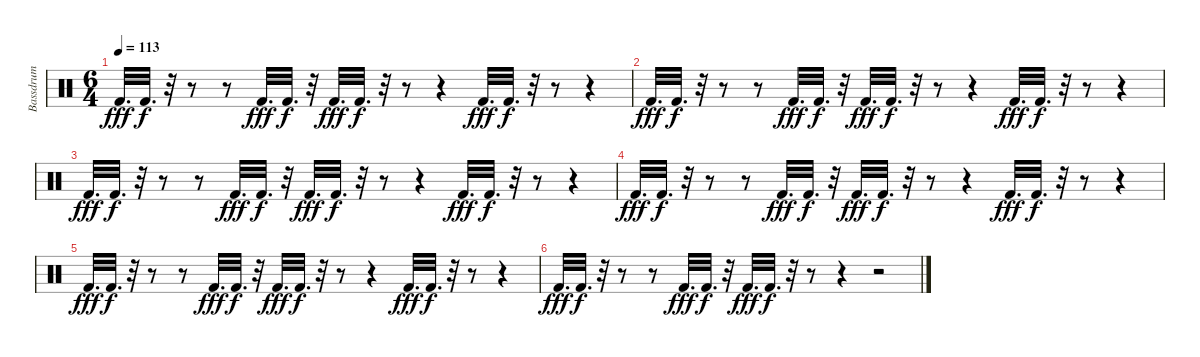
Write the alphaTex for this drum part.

\track ("Bassdrum" "Bassdrum") {instrument percussion}
\staff {score}
\articulation defaults
\ts (6 4)
\tempo 113
\clef neutral
\ks c "Kick (hit) 2".32{d dy fff} "Kick (hit) 2".32{d dy f}
r.32 r.8 r.8 "Kick (hit) 2".32{d dy fff} "Kick (hit) 2".32{d dy f} r.32 "Kick (hit) 2".32{d dy fff} "Kick (hit) 2".32{d dy f} r.32 r.8 r.4 "Kick (hit) 2".32{d dy fff} "Kick (hit) 2".32{d dy f} r.32 r.8 r.4 |
"Kick (hit) 2".32{d dy fff} "Kick (hit) 2".32{d dy f} r.32 r.8 r.8 "Kick (hit) 2".32{d dy fff} "Kick (hit) 2".32{d dy f} r.32 "Kick (hit) 2".32{d dy fff} "Kick (hit) 2".32{d dy f} r.32 r.8 r.4 "Kick (hit) 2".32{d dy fff} "Kick (hit) 2".32{d dy f} r.32 r.8 r.4 |
"Kick (hit) 2".32{d dy fff} "Kick (hit) 2".32{d dy f} r.32 r.8 r.8 "Kick (hit) 2".32{d dy fff} "Kick (hit) 2".32{d dy f} r.32 "Kick (hit) 2".32{d dy fff} "Kick (hit) 2".32{d dy f} r.32 r.8 r.4 "Kick (hit) 2".32{d dy fff} "Kick (hit) 2".32{d dy f} r.32 r.8 r.4 |
"Kick (hit) 2".32{d dy fff} "Kick (hit) 2".32{d dy f} r.32 r.8 r.8 "Kick (hit) 2".32{d dy fff} "Kick (hit) 2".32{d dy f} r.32 "Kick (hit) 2".32{d dy fff} "Kick (hit) 2".32{d dy f} r.32 r.8 r.4 "Kick (hit) 2".32{d dy fff} "Kick (hit) 2".32{d dy f} r.32 r.8 r.4 |
"Kick (hit) 2".32{d dy fff} "Kick (hit) 2".32{d dy f} r.32 r.8 r.8 "Kick (hit) 2".32{d dy fff} "Kick (hit) 2".32{d dy f} r.32 "Kick (hit) 2".32{d dy fff} "Kick (hit) 2".32{d dy f} r.32 r.8 r.4 "Kick (hit) 2".32{d dy fff} "Kick (hit) 2".32{d dy f} r.32 r.8 r.4 |
"Kick (hit) 2".32{d dy fff} "Kick (hit) 2".32{d dy f} r.32 r.8 r.8 "Kick (hit) 2".32{d dy fff} "Kick (hit) 2".32{d dy f} r.32 "Kick (hit) 2".32{d dy fff} "Kick (hit) 2".32{d dy f} r.32 r.8 r.4 r.2
